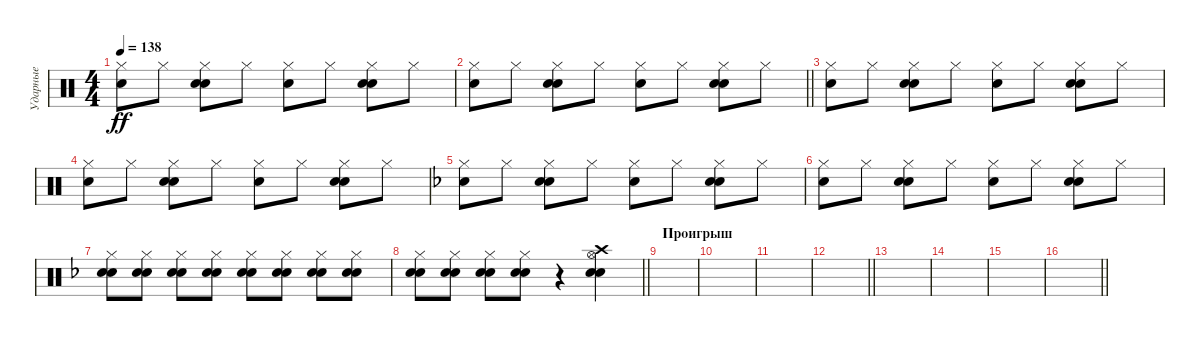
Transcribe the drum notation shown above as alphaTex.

\track ("Ударные" "Ударные") {instrument percussion}
\staff {score}
\articulation defaults
\ts (4 4)
\tempo 138
\clef neutral
\ks c
("Hi-Hat (closed)" "Snare (hit) 2").8{dy ff} "Hi-Hat (closed)".8 ("Hi-Hat (closed)" "Snare (hit) 2" "Electric Snare (hit)").8 "Hi-Hat (closed)".8 ("Hi-Hat (closed)" "Snare (hit) 2").8 "Hi-Hat (closed)".8 ("Hi-Hat (closed)" "Snare (hit) 2" "Electric Snare (hit)").8 "Hi-Hat (closed)".8 |
\barLineRight lightlight
("Hi-Hat (closed)" "Snare (hit) 2").8 "Hi-Hat (closed)".8 ("Hi-Hat (closed)" "Snare (hit) 2" "Electric Snare (hit)").8 "Hi-Hat (closed)".8 ("Hi-Hat (closed)" "Snare (hit) 2").8 "Hi-Hat (closed)".8 ("Hi-Hat (closed)" "Snare (hit) 2" "Electric Snare (hit)").8 "Hi-Hat (closed)".8 |
("Hi-Hat (closed)" "Snare (hit) 2").8 "Hi-Hat (closed)".8 ("Hi-Hat (closed)" "Snare (hit) 2" "Electric Snare (hit)").8 "Hi-Hat (closed)".8 ("Hi-Hat (closed)" "Snare (hit) 2").8 "Hi-Hat (closed)".8 ("Hi-Hat (closed)" "Snare (hit) 2" "Electric Snare (hit)").8 "Hi-Hat (closed)".8 |
("Hi-Hat (closed)" "Snare (hit) 2").8 "Hi-Hat (closed)".8 ("Hi-Hat (closed)" "Snare (hit) 2" "Electric Snare (hit)").8 "Hi-Hat (closed)".8 ("Hi-Hat (closed)" "Snare (hit) 2").8 "Hi-Hat (closed)".8 ("Hi-Hat (closed)" "Snare (hit) 2" "Electric Snare (hit)").8 "Hi-Hat (closed)".8 |
\ks f
("Hi-Hat (closed)" "Snare (hit) 2").8 "Hi-Hat (closed)".8 ("Hi-Hat (closed)" "Snare (hit) 2" "Electric Snare (hit)").8 "Hi-Hat (closed)".8 ("Hi-Hat (closed)" "Snare (hit) 2").8 "Hi-Hat (closed)".8 ("Hi-Hat (closed)" "Snare (hit) 2" "Electric Snare (hit)").8 "Hi-Hat (closed)".8 |
("Hi-Hat (closed)" "Snare (hit) 2").8 "Hi-Hat (closed)".8 ("Hi-Hat (closed)" "Snare (hit) 2" "Electric Snare (hit)").8 "Hi-Hat (closed)".8 ("Hi-Hat (closed)" "Snare (hit) 2").8 "Hi-Hat (closed)".8 ("Hi-Hat (closed)" "Snare (hit) 2" "Electric Snare (hit)").8 "Hi-Hat (closed)".8 |
("Hi-Hat (closed)" "Snare (hit) 2" "Electric Snare (hit)").8 ("Hi-Hat (closed)" "Snare (hit) 2" "Electric Snare (hit)").8 ("Hi-Hat (closed)" "Snare (hit) 2" "Electric Snare (hit)").8 ("Hi-Hat (closed)" "Snare (hit) 2" "Electric Snare (hit)").8 ("Hi-Hat (closed)" "Snare (hit) 2" "Electric Snare (hit)").8 ("Hi-Hat (closed)" "Snare (hit) 2" "Electric Snare (hit)").8 ("Hi-Hat (closed)" "Snare (hit) 2" "Electric Snare (hit)").8 ("Hi-Hat (closed)" "Snare (hit) 2" "Electric Snare (hit)").8 |
\barLineRight lightlight
("Hi-Hat (closed)" "Snare (hit) 2" "Electric Snare (hit)").8 ("Hi-Hat (closed)" "Snare (hit) 2" "Electric Snare (hit)").8 ("Hi-Hat (closed)" "Snare (hit) 2" "Electric Snare (hit)").8 ("Hi-Hat (closed)" "Snare (hit) 2" "Electric Snare (hit)").8 r.4 ("Hi-Hat (open)" "Snare (hit) 2" "Electric Snare (hit)" "Crash high (hit)").4 |
\section ("" "Проигрыш")
|
|
|
\barLineRight lightlight
|
|
|
|
\barLineRight lightlight
